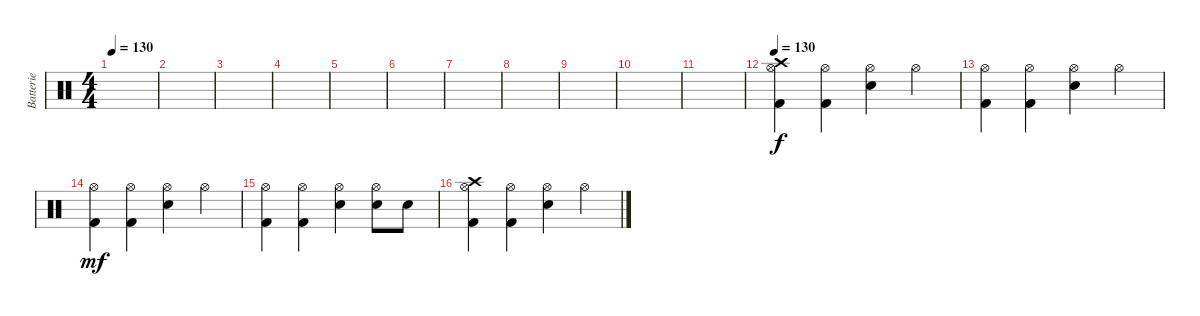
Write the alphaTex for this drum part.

\track ("Batterie" "Batterie") {instrument percussion}
\staff {score}
\articulation defaults
\ts (4 4)
\tempo 130
\tempo 120
\tempo 130
\clef neutral
\ks c
|
|
|
|
|
|
|
|
|
|
|
\tempo 130
("Crash high (hit)" "Hi-Hat (open)" "Kick (hit) 2").4 ("Hi-Hat (open)" "Kick (hit) 2").4 ("Hi-Hat (open)" "Electric Snare (hit)").4 "Hi-Hat (open)".4 |
("Hi-Hat (open)" "Kick (hit) 2").4 ("Hi-Hat (open)" "Kick (hit) 2").4 ("Hi-Hat (open)" "Electric Snare (hit)").4 "Hi-Hat (open)".4{dy f} |
("Hi-Hat (open)" "Kick (hit) 2").4{dy mf} ("Hi-Hat (open)" "Kick (hit) 2").4 ("Hi-Hat (open)" "Electric Snare (hit)").4 "Hi-Hat (open)".4 |
("Hi-Hat (open)" "Kick (hit) 2").4 ("Hi-Hat (open)" "Kick (hit) 2").4 ("Hi-Hat (open)" "Electric Snare (hit)").4 ("Hi-Hat (open)" "Electric Snare (hit)").8 "Electric Snare (hit)".8 |
("Crash high (hit)" "Hi-Hat (open)" "Kick (hit) 2").4 ("Hi-Hat (open)" "Kick (hit) 2").4 ("Hi-Hat (open)" "Electric Snare (hit)").4 "Hi-Hat (open)".4
